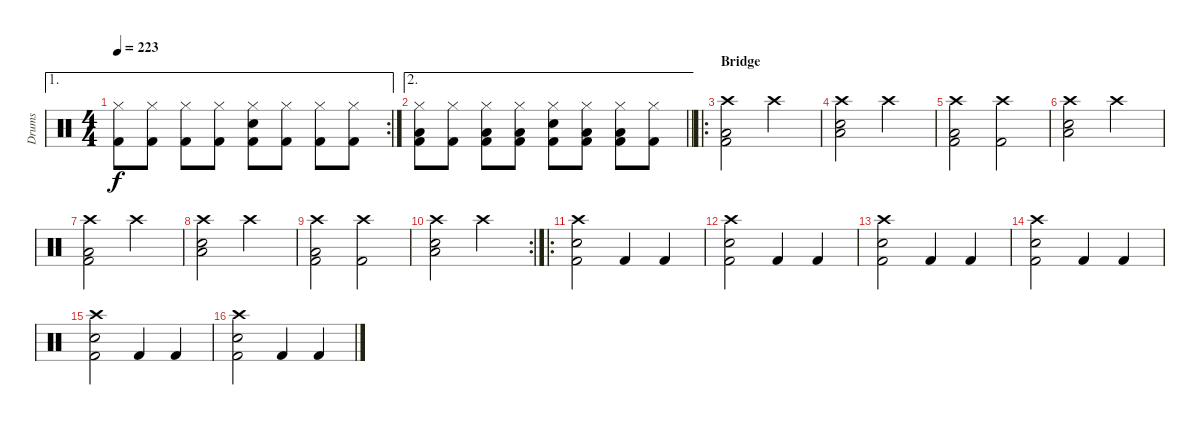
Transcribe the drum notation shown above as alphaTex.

\track ("Drums" "Drums") {instrument percussion}
\staff {score}
\articulation defaults
\ae 1
\rc 2
\ts (4 4)
\tempo 223
\clef neutral
\ks c
("Hi-Hat (closed)" "Kick (hit) 2").8{dy f} ("Hi-Hat (closed)" "Kick (hit) 2").8 ("Hi-Hat (closed)" "Kick (hit) 2").8 ("Hi-Hat (closed)" "Kick (hit) 2").8 ("Hi-Hat (closed)" "Snare (hit) 2" "Kick (hit) 2").8 ("Hi-Hat (closed)" "Kick (hit) 2").8 ("Hi-Hat (closed)" "Kick (hit) 2").8 ("Hi-Hat (closed)" "Kick (hit) 2").8 |
\ae 2
\barLineRight lightlight
("Hi-Hat (closed)" "Low Tom (hit)" "Kick (hit) 2").8 ("Hi-Hat (closed)" "Kick (hit) 2").8 ("Hi-Hat (closed)" "Low Tom (hit)" "Kick (hit) 2").8 ("Hi-Hat (closed)" "Low Tom (hit)" "Kick (hit) 2").8 ("Hi-Hat (closed)" "Snare (hit) 2" "Kick (hit) 2").8 ("Hi-Hat (closed)" "Low Tom (hit)" "Kick (hit) 2").8 ("Hi-Hat (closed)" "Low Tom (hit)" "Kick (hit) 2").8 ("Hi-Hat (closed)" "Kick (hit) 2").8 |
\ro
\section ("" "Bridge")
("Crash high (hit)" "Low Tom (hit)" "Kick (hit) 2").2 "Crash high (hit)".2 |
("Crash high (hit)" "Low Tom (hit)" "Snare (hit) 2").2 "Crash high (hit)".2 |
("Crash high (hit)" "Low Tom (hit)" "Kick (hit) 2").2 ("Crash high (hit)" "Kick (hit) 2").2 |
("Crash high (hit)" "Low Tom (hit)" "Snare (hit) 2").2 "Crash high (hit)".2 |
("Crash high (hit)" "Low Tom (hit)" "Kick (hit) 2").2 "Crash high (hit)".2 |
("Crash high (hit)" "Low Tom (hit)" "Snare (hit) 2").2 "Crash high (hit)".2 |
("Crash high (hit)" "Low Tom (hit)" "Kick (hit) 2").2 ("Crash high (hit)" "Kick (hit) 2").2 |
\rc 2
("Crash high (hit)" "Low Tom (hit)" "Snare (hit) 2").2 "Crash high (hit)".2 |
\ro
("Crash high (hit)" "Snare (hit) 2" "Kick (hit) 2").2 "Kick (hit) 2".4 "Kick (hit) 2".4 |
("Crash high (hit)" "Snare (hit) 2" "Kick (hit) 2").2 "Kick (hit) 2".4 "Kick (hit) 2".4 |
("Crash high (hit)" "Snare (hit) 2" "Kick (hit) 2").2 "Kick (hit) 2".4 "Kick (hit) 2".4 |
("Crash high (hit)" "Snare (hit) 2" "Kick (hit) 2").2 "Kick (hit) 2".4 "Kick (hit) 2".4 |
("Crash high (hit)" "Snare (hit) 2" "Kick (hit) 2").2 "Kick (hit) 2".4 "Kick (hit) 2".4 |
("Crash high (hit)" "Snare (hit) 2" "Kick (hit) 2").2 "Kick (hit) 2".4 "Kick (hit) 2".4
